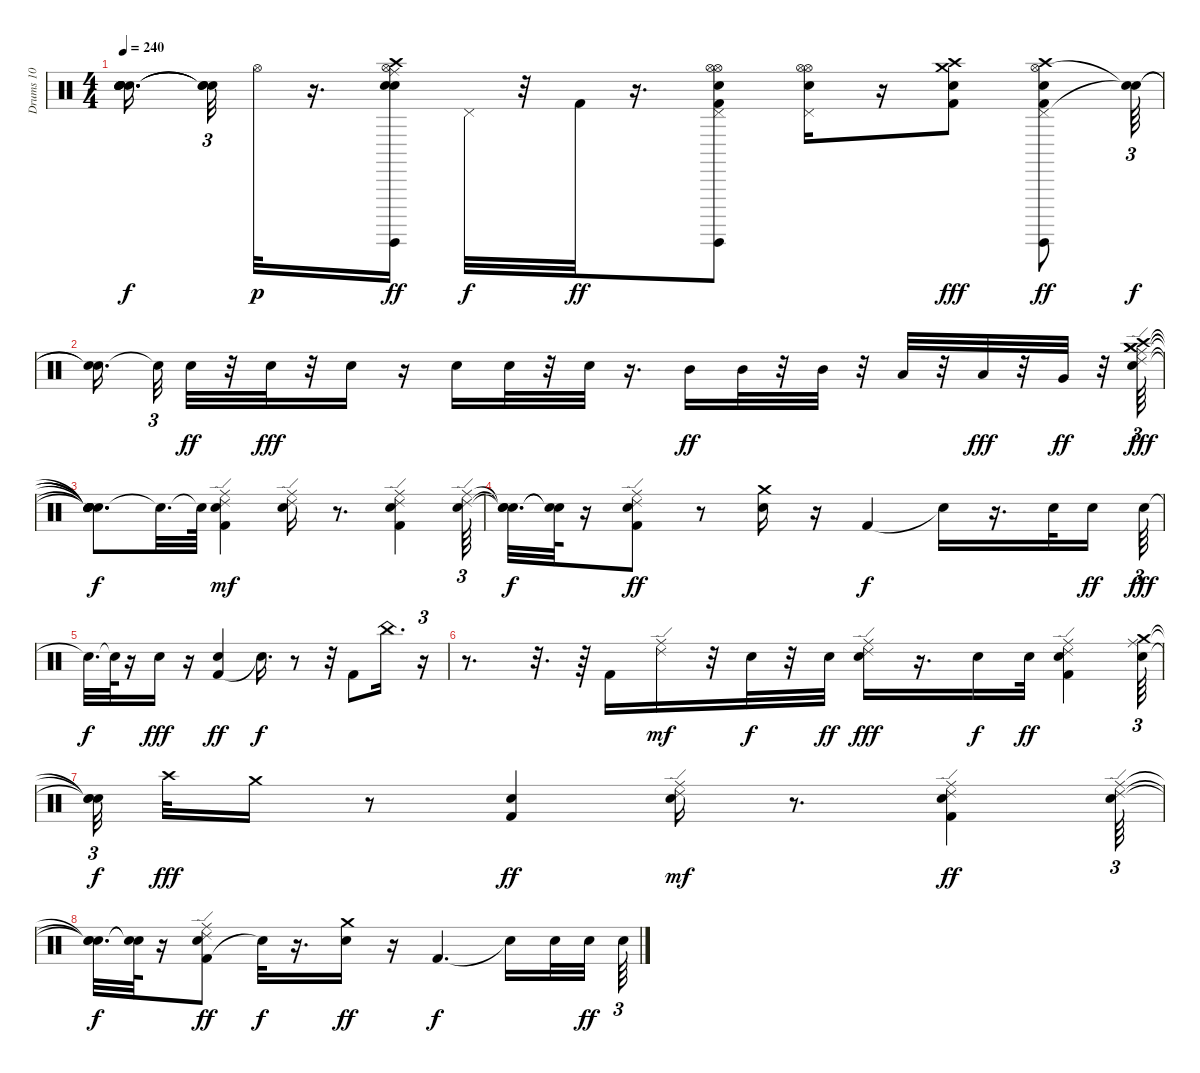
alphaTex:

\track ("Drums 10" "Drums 10") {instrument percussion}
\staff {score}
\articulation defaults
\ts (4 4)
\tempo 240
\clef neutral
\ks c
("Snare (hit)"{t} "Snare (hit)"{t} "Snare (hit)"{t} "Snare (hit)"{t} "Snare (hit)"{t} "Snare (hit)"{t}).16{d dy f beam splitsecondary} ("Snare (hit)"{t} "Snare (hit)"{t} "Snare (hit)"{t}).32{tu (3 2)} "Hi-Hat (open)".32{dy p} r.16{d} ("Hi-Hat (open)" "Guiro (hit)" "Snare (hit) 2" "Electric Snare (hit)" "Ride (middle)" "Crash high (hit)").16{dy ff} "Pedal Hi-Hat (hit)".32{dy f} r.32 "Kick (hit) 2".32{dy ff} r.16{d} ("Pedal Hi-Hat (hit)" "Hi-Hat (open)" "Guiro (hit)" "Kick (hit) 2" "Electric Snare (hit)" "Hi-Hat (open)").8 ("Pedal Hi-Hat (hit)" "Hi-Hat (open)" "Electric Snare (hit)" "Hi-Hat (open)").16 r.16 ("Kick (hit) 2" "Snare (hit) 2" "Crash high (hit)" "Crash medium (hit)").8{dy fff} ("Pedal Hi-Hat (hit)" "Hi-Hat (open)" "Guiro (hit)" "Kick (hit) 2" "Crash high (hit)" "Electric Snare (hit)").8{dy ff} ("Snare (hit)"{t} "Snare (hit)"{t}).64{tu (3 2) dy f} |
("Snare (hit)"{t} "Snare (hit)"{t}).16{d beam splitsecondary} "Snare (hit)"{t}.32{tu (3 2)} "Electric Snare (hit)".32{dy ff} r.32 "Electric Snare (hit)".32{dy fff} r.32 "Electric Snare (hit)".16 r.16 "Electric Snare (hit)".16 "Electric Snare (hit)".32 r.32 "Electric Snare (hit)".32 r.16{d} "Mid Tom (hit)".16{dy ff} "Mid Tom (hit)".32 r.32 "Mid Tom (hit)".32 r.32 "Low Tom (hit)".32 r.32 "Low Tom (hit)".32{dy fff} r.32 "Very Low Tom (hit)".32{dy ff} r.32 ("Crash high (hit)" "Crash medium (hit)" "Electric Snare (hit)" "Ride (edge) 2" "Ride (middle)" "Crash medium (hit)").64{tu (3 2) dy fff} |
("Snare (hit)"{t} "Snare (hit)"{t} "Snare (hit)"{t} "Snare (hit)"{t} "Snare (hit)"{t} "Snare (hit)"{t}).8{d dy f} "Snare (hit)"{t}.32{d} "Snare (hit)"{t}.64 ("Kick (hit) 2" "Electric Snare (hit)" "Ride (middle)" "Ride (edge) 2").4{dy mf} ("Electric Snare (hit)" "Ride (middle)" "Ride (edge) 2").16 r.8{d} ("Kick (hit) 2" "Electric Snare (hit)" "Ride (middle)" "Ride (edge) 2").4 ("Electric Snare (hit)" "Ride (edge) 2" "Ride (middle)").64{tu (3 2)} |
("Snare (hit)"{t} "Snare (hit)"{t} "Snare (hit)"{t}).32{d dy f} ("Snare (hit)"{t} "Snare (hit)"{t}).64 r.16 ("Kick (hit) 2" "Electric Snare (hit)" "Ride (edge) 2" "Ride (middle)").8{dy ff} r.8 ("Snare (hit) 2" "Crash medium (hit)").16 r.16 "Kick (hit) 2".4{dy f} "Snare (hit)"{t}.16 r.16{d} "Snare (hit) 2".32 "Electric Snare (hit)".16{dy ff} "Snare (hit) 2".64{tu (3 2) dy fff} |
"Snare (hit)"{t}.32{d dy f} "Snare (hit)"{t}.64 r.16 "Electric Snare (hit)".16{dy fff} r.16 ("Kick (hit) 2" "Snare (hit) 2").4{dy ff} "Snare (hit)"{t}.16{d dy f} r.8 r.32 "Kick (hit) 2".8 "China (hit)".16{d} r.16{tu (3 2)} |
r.8{d} r.32{d} r.64 "Kick (hit) 2".16 ("Ride (middle)" "Ride (edge) 2").16{dy mf} r.32 "Snare (hit) 2".32{dy f} r.32 "Electric Snare (hit)".32{dy ff} ("Snare (hit) 2" "Ride (middle)" "Ride (edge) 2").16{dy fff} r.16{d} "Snare (hit) 2".16{dy f} "Electric Snare (hit)".32{dy ff} ("Kick (hit) 2" "Snare (hit) 2" "Ride (middle)" "Ride (edge) 2").4 ("Electric Snare (hit)" "Ride (middle)" "Crash medium (hit)").64{tu (3 2)} |
("Snare (hit)"{t} "Snare (hit)"{t} "Snare (hit)"{t}).32{tu (3 2) dy f beam splitsecondary} "Crash high (hit)".32{dy fff} "Crash medium (hit)".16 r.8 ("Kick (hit) 2" "Electric Snare (hit)").4{dy ff} ("Electric Snare (hit)" "Ride (middle)" "Ride (edge) 2").16{dy mf} r.8{d} ("Electric Snare (hit)" "Kick (hit) 2" "Ride (middle)" "Ride (edge) 2").4{dy ff} ("Electric Snare (hit)" "Ride (middle)" "Ride (edge) 2").64{tu (3 2)} |
("Snare (hit)"{t} "Snare (hit)"{t} "Snare (hit)"{t}).32{d dy f} ("Snare (hit)"{t} "Snare (hit)"{t}).64 r.16 ("Kick (hit) 2" "Ride (middle)" "Ride (edge) 2" "Electric Snare (hit)").8{dy ff} "Snare (hit)"{t}.32{dy f} r.16{d} ("Snare (hit) 2" "Crash medium (hit)").16{dy ff} r.16 "Kick (hit) 2".4{d dy f} "Snare (hit)"{t}.16 "Snare (hit) 2".32 "Electric Snare (hit)".32{dy ff} "Snare (hit) 2".64{tu (3 2)}
